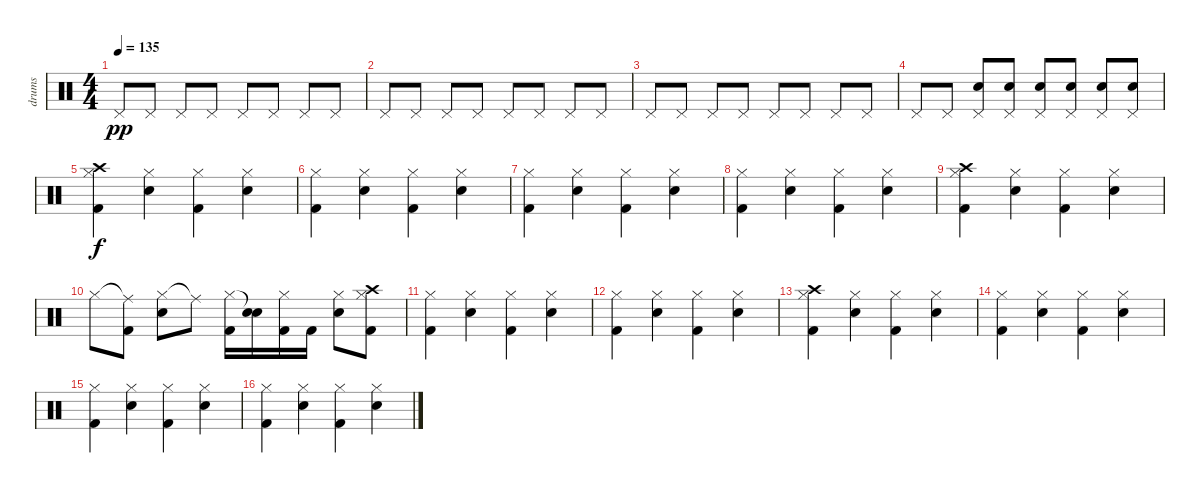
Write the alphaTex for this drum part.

\track ("drums" "drums") {instrument percussion}
\staff {score}
\articulation defaults
\ts (4 4)
\tempo 135
\clef neutral
\ks c "Pedal Hi-Hat (hit)".8{dy pp} "Pedal Hi-Hat (hit)".8 "Pedal Hi-Hat (hit)".8 "Pedal Hi-Hat (hit)".8 "Pedal Hi-Hat (hit)".8 "Pedal Hi-Hat (hit)".8 "Pedal Hi-Hat (hit)".8 "Pedal Hi-Hat (hit)".8
|
"Pedal Hi-Hat (hit)".8 "Pedal Hi-Hat (hit)".8 "Pedal Hi-Hat (hit)".8 "Pedal Hi-Hat (hit)".8 "Pedal Hi-Hat (hit)".8 "Pedal Hi-Hat (hit)".8 "Pedal Hi-Hat (hit)".8 "Pedal Hi-Hat (hit)".8 |
"Pedal Hi-Hat (hit)".8 "Pedal Hi-Hat (hit)".8 "Pedal Hi-Hat (hit)".8 "Pedal Hi-Hat (hit)".8 "Pedal Hi-Hat (hit)".8 "Pedal Hi-Hat (hit)".8 "Pedal Hi-Hat (hit)".8 "Pedal Hi-Hat (hit)".8 |
"Pedal Hi-Hat (hit)".8 "Pedal Hi-Hat (hit)".8 ("Pedal Hi-Hat (hit)" "Electric Snare (hit)").8 ("Pedal Hi-Hat (hit)" "Electric Snare (hit)").8 ("Pedal Hi-Hat (hit)" "Electric Snare (hit)").8 ("Pedal Hi-Hat (hit)" "Electric Snare (hit)").8 ("Pedal Hi-Hat (hit)" "Electric Snare (hit)").8 ("Pedal Hi-Hat (hit)" "Electric Snare (hit)").8 |
("Crash high (hit)" "Hi-Hat (closed)" "Kick (hit) 2").4{dy f} ("Hi-Hat (closed)" "Electric Snare (hit)").4 ("Hi-Hat (closed)" "Kick (hit) 2").4 ("Hi-Hat (closed)" "Electric Snare (hit)").4 |
("Hi-Hat (closed)" "Kick (hit) 2").4 ("Hi-Hat (closed)" "Electric Snare (hit)").4 ("Hi-Hat (closed)" "Kick (hit) 2").4 ("Hi-Hat (closed)" "Electric Snare (hit)").4 |
("Hi-Hat (closed)" "Kick (hit) 2").4 ("Hi-Hat (closed)" "Electric Snare (hit)").4 ("Hi-Hat (closed)" "Kick (hit) 2").4 ("Hi-Hat (closed)" "Electric Snare (hit)").4 |
("Hi-Hat (closed)" "Kick (hit) 2").4 ("Hi-Hat (closed)" "Electric Snare (hit)").4 ("Hi-Hat (closed)" "Kick (hit) 2").4 ("Hi-Hat (closed)" "Electric Snare (hit)").4 |
("Crash high (hit)" "Hi-Hat (closed)" "Kick (hit) 2").4 ("Hi-Hat (closed)" "Electric Snare (hit)").4 ("Hi-Hat (closed)" "Kick (hit) 2").4 ("Hi-Hat (closed)" "Electric Snare (hit)").4 |
"Hi-Hat (closed)".8 ("Ride (middle)"{t} "Kick (hit) 2").8 ("Hi-Hat (closed)" "Electric Snare (hit)").8 "Ride (middle)"{t}.8 ("Hi-Hat (closed)" "Kick (hit) 2").16 ("Electric Snare (hit)"{t} "Electric Snare (hit)").16 ("Hi-Hat (closed)" "Kick (hit) 2").16 "Kick (hit) 2".16 ("Hi-Hat (closed)" "Electric Snare (hit)").8 ("Hi-Hat (closed)" "Kick (hit) 2" "Crash high (hit)").8 |
("Hi-Hat (closed)" "Kick (hit) 2").4 ("Hi-Hat (closed)" "Electric Snare (hit)").4 ("Hi-Hat (closed)" "Kick (hit) 2").4 ("Hi-Hat (closed)" "Electric Snare (hit)").4 |
("Hi-Hat (closed)" "Kick (hit) 2").4 ("Hi-Hat (closed)" "Electric Snare (hit)").4 ("Hi-Hat (closed)" "Kick (hit) 2").4 ("Hi-Hat (closed)" "Electric Snare (hit)").4 |
("Crash high (hit)" "Hi-Hat (closed)" "Kick (hit) 2").4 ("Hi-Hat (closed)" "Electric Snare (hit)").4 ("Hi-Hat (closed)" "Kick (hit) 2").4 ("Hi-Hat (closed)" "Electric Snare (hit)").4 |
("Hi-Hat (closed)" "Kick (hit) 2").4 ("Hi-Hat (closed)" "Electric Snare (hit)").4 ("Hi-Hat (closed)" "Kick (hit) 2").4 ("Hi-Hat (closed)" "Electric Snare (hit)").4 |
("Hi-Hat (closed)" "Kick (hit) 2").4 ("Hi-Hat (closed)" "Electric Snare (hit)").4 ("Hi-Hat (closed)" "Kick (hit) 2").4 ("Hi-Hat (closed)" "Electric Snare (hit)").4 |
("Hi-Hat (closed)" "Kick (hit) 2").4 ("Hi-Hat (closed)" "Electric Snare (hit)").4 ("Hi-Hat (closed)" "Kick (hit) 2").4 ("Hi-Hat (closed)" "Electric Snare (hit)").4
